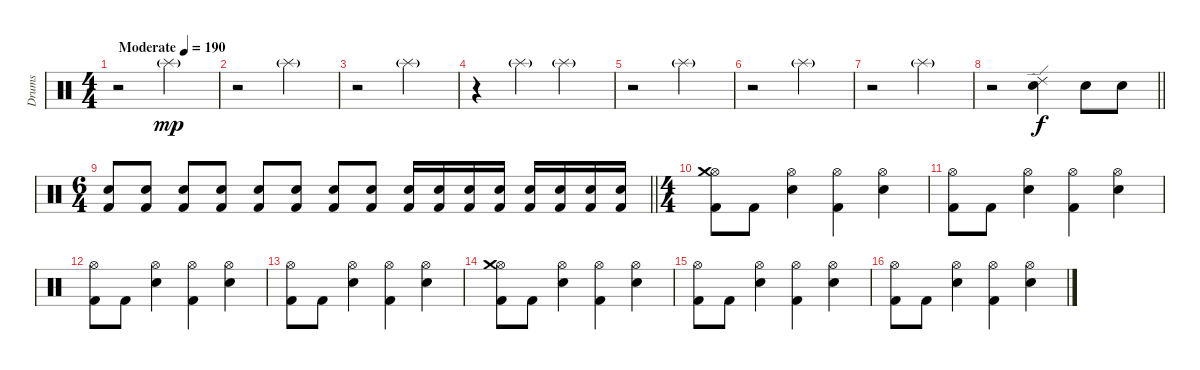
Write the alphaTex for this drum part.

\track ("Drums" "Drums") {instrument percussion}
\staff {score}
\articulation defaults
\ts (4 4)
\tempo (190 "Moderate")
\clef neutral
\ks c
r.2{dy mp} "Splash (hit)"{g}.2 |
r.2 "Splash (hit)"{g}.2 |
r.2 "Splash (hit)"{g}.2 |
r.4 "Splash (hit)"{g}.4 "Splash (hit)"{g}.2 |
r.2 "Splash (hit)"{g}.2 |
r.2 "Splash (hit)"{g}.2 |
r.2 "Splash (hit)"{g}.2 |
\barLineRight lightlight
r.2 ("Snare (hit) 2" "Ride (edge) 2").4{dy f} "Snare (hit) 2".8 "Snare (hit) 2".8 |
\ts (6 4)
\barLineRight lightlight
("Kick (hit) 2" "Snare (hit) 2").8 ("Kick (hit) 2" "Snare (hit) 2").8 ("Kick (hit) 2" "Snare (hit) 2").8 ("Kick (hit) 2" "Snare (hit) 2").8 ("Kick (hit) 2" "Snare (hit) 2").8 ("Kick (hit) 2" "Snare (hit) 2").8 ("Kick (hit) 2" "Snare (hit) 2").8 ("Kick (hit) 2" "Snare (hit) 2").8 ("Kick (hit) 2" "Snare (hit) 2").16 ("Kick (hit) 2" "Snare (hit) 2").16 ("Kick (hit) 2" "Snare (hit) 2").16 ("Kick (hit) 2" "Snare (hit) 2").16 ("Kick (hit) 2" "Snare (hit) 2").16 ("Kick (hit) 2" "Snare (hit) 2").16 ("Kick (hit) 2" "Snare (hit) 2").16 ("Kick (hit) 2" "Snare (hit) 2").16 |
\ts (4 4)
\section ("" "")
("Kick (hit) 2" "Hi-Hat (open)" "Crash medium (hit)").8 "Kick (hit) 2".8 ("Snare (hit) 2" "Hi-Hat (open)").4 ("Kick (hit) 2" "Hi-Hat (open)").4 ("Snare (hit) 2" "Hi-Hat (open)").4 |
("Kick (hit) 2" "Hi-Hat (open)").8 "Kick (hit) 2".8 ("Snare (hit) 2" "Hi-Hat (open)").4 ("Kick (hit) 2" "Hi-Hat (open)").4 ("Snare (hit) 2" "Hi-Hat (open)").4 |
("Kick (hit) 2" "Hi-Hat (open)").8 "Kick (hit) 2".8 ("Snare (hit) 2" "Hi-Hat (open)").4 ("Kick (hit) 2" "Hi-Hat (open)").4 ("Snare (hit) 2" "Hi-Hat (open)").4 |
("Kick (hit) 2" "Hi-Hat (open)").8 "Kick (hit) 2".8 ("Snare (hit) 2" "Hi-Hat (open)").4 ("Kick (hit) 2" "Hi-Hat (open)").4 ("Snare (hit) 2" "Hi-Hat (open)").4 |
("Kick (hit) 2" "Hi-Hat (open)" "Crash medium (hit)").8 "Kick (hit) 2".8 ("Snare (hit) 2" "Hi-Hat (open)").4 ("Kick (hit) 2" "Hi-Hat (open)").4 ("Snare (hit) 2" "Hi-Hat (open)").4 |
("Kick (hit) 2" "Hi-Hat (open)").8 "Kick (hit) 2".8 ("Snare (hit) 2" "Hi-Hat (open)").4 ("Kick (hit) 2" "Hi-Hat (open)").4 ("Snare (hit) 2" "Hi-Hat (open)").4 |
("Kick (hit) 2" "Hi-Hat (open)").8 "Kick (hit) 2".8 ("Snare (hit) 2" "Hi-Hat (open)").4 ("Kick (hit) 2" "Hi-Hat (open)").4 ("Snare (hit) 2" "Hi-Hat (open)").4
